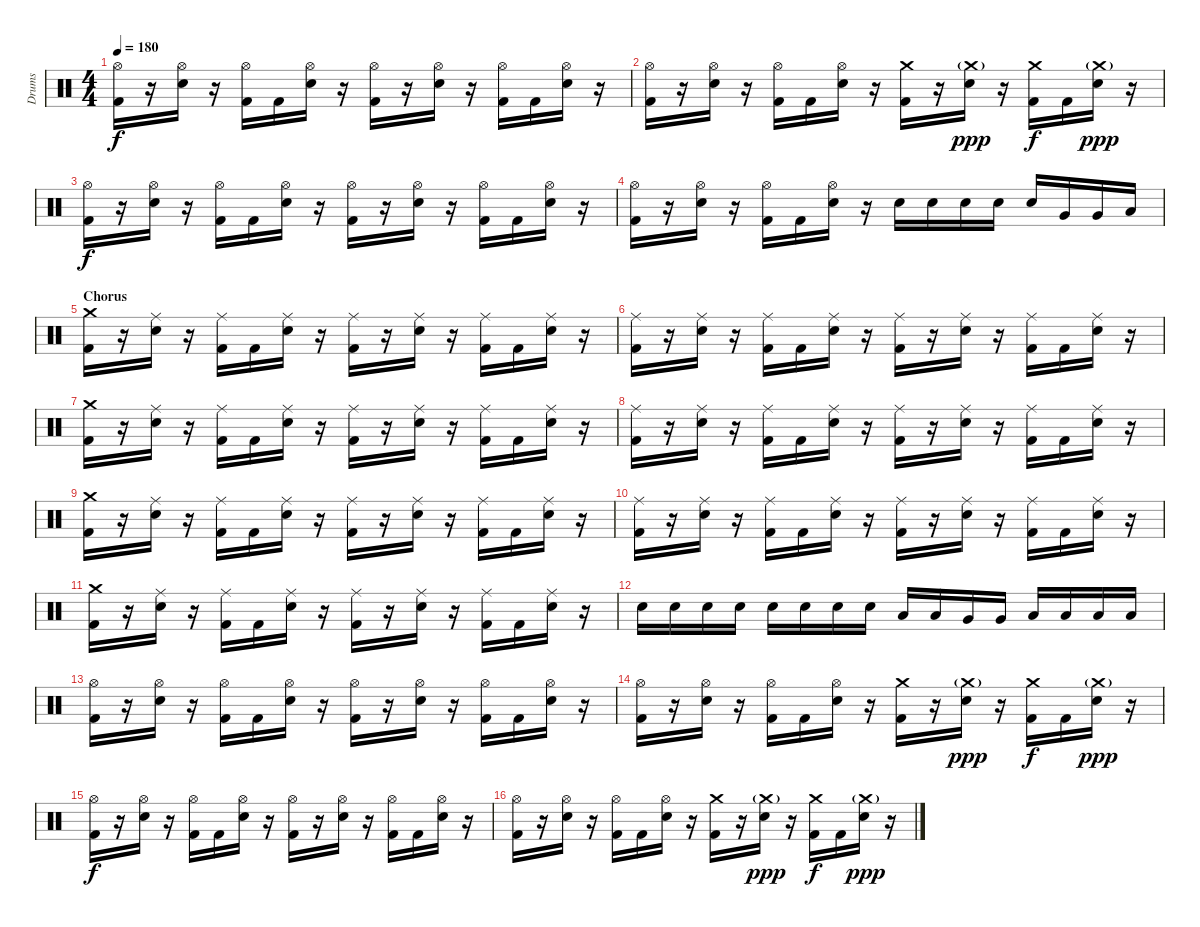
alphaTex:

\track ("Drums" "Drums") {instrument percussion}
\staff {score}
\articulation defaults
\ts (4 4)
\tempo 180
\clef neutral
\ks c
("Hi-Hat (open)" "Kick (hit) 2").16{dy f} r.16 ("Hi-Hat (open)" "Snare (hit) 2").16 r.16 ("Hi-Hat (open)" "Kick (hit) 2").16 "Kick (hit) 2".16 ("Hi-Hat (open)" "Snare (hit) 2").16 r.16 ("Hi-Hat (open)" "Kick (hit) 2").16 r.16 ("Hi-Hat (open)" "Snare (hit) 2").16 r.16 ("Hi-Hat (open)" "Kick (hit) 2").16 "Kick (hit) 2".16 ("Hi-Hat (open)" "Snare (hit) 2").16 r.16 |
("Hi-Hat (open)" "Kick (hit) 2").16 r.16 ("Hi-Hat (open)" "Snare (hit) 2").16 r.16 ("Hi-Hat (open)" "Kick (hit) 2").16 "Kick (hit) 2".16 ("Hi-Hat (open)" "Snare (hit) 2").16 r.16 ("Crash medium (hit)" "Kick (hit) 2").16 r.16 ("Crash medium (hit)"{g} "Snare (hit) 2").16{dy ppp} r.16 ("Crash medium (hit)" "Kick (hit) 2").16{dy f} "Kick (hit) 2".16 ("Crash medium (hit)"{g} "Snare (hit) 2").16{dy ppp} r.16 |
("Hi-Hat (open)" "Kick (hit) 2").16{dy f} r.16 ("Hi-Hat (open)" "Snare (hit) 2").16 r.16 ("Hi-Hat (open)" "Kick (hit) 2").16 "Kick (hit) 2".16 ("Hi-Hat (open)" "Snare (hit) 2").16 r.16 ("Hi-Hat (open)" "Kick (hit) 2").16 r.16 ("Hi-Hat (open)" "Snare (hit) 2").16 r.16 ("Hi-Hat (open)" "Kick (hit) 2").16 "Kick (hit) 2".16 ("Hi-Hat (open)" "Snare (hit) 2").16 r.16 |
("Hi-Hat (open)" "Kick (hit) 2").16 r.16 ("Hi-Hat (open)" "Snare (hit) 2").16 r.16 ("Hi-Hat (open)" "Kick (hit) 2").16 "Kick (hit) 2".16 ("Hi-Hat (open)" "Snare (hit) 2").16 r.16 "Snare (hit) 2".16 "Snare (hit) 2".16 "Snare (hit) 2".16 "Snare (hit) 2".16 "Snare (hit) 2".16 "Very Low Tom (hit)".16 "Very Low Tom (hit)".16 "Low Floor Tom (hit)".16 |
\section ("" "Chorus")
("Crash medium (hit)" "Kick (hit) 2").16 r.16 ("Ride (middle)" "Snare (hit) 2").16 r.16 ("Ride (middle)" "Kick (hit) 2").16 "Kick (hit) 2".16 ("Ride (middle)" "Snare (hit) 2").16 r.16 ("Ride (middle)" "Kick (hit) 2").16 r.16 ("Ride (middle)" "Snare (hit) 2").16 r.16 ("Ride (middle)" "Kick (hit) 2").16 "Kick (hit) 2".16 ("Ride (middle)" "Snare (hit) 2").16 r.16 |
("Ride (middle)" "Kick (hit) 2").16 r.16 ("Ride (middle)" "Snare (hit) 2").16 r.16 ("Ride (middle)" "Kick (hit) 2").16 "Kick (hit) 2".16 ("Ride (middle)" "Snare (hit) 2").16 r.16 ("Ride (middle)" "Kick (hit) 2").16 r.16 ("Ride (middle)" "Snare (hit) 2").16 r.16 ("Ride (middle)" "Kick (hit) 2").16 "Kick (hit) 2".16 ("Ride (middle)" "Snare (hit) 2").16 r.16 |
("Crash medium (hit)" "Kick (hit) 2").16 r.16 ("Ride (middle)" "Snare (hit) 2").16 r.16 ("Ride (middle)" "Kick (hit) 2").16 "Kick (hit) 2".16 ("Ride (middle)" "Snare (hit) 2").16 r.16 ("Ride (middle)" "Kick (hit) 2").16 r.16 ("Ride (middle)" "Snare (hit) 2").16 r.16 ("Ride (middle)" "Kick (hit) 2").16 "Kick (hit) 2".16 ("Ride (middle)" "Snare (hit) 2").16 r.16 |
("Ride (middle)" "Kick (hit) 2").16 r.16 ("Ride (middle)" "Snare (hit) 2").16 r.16 ("Ride (middle)" "Kick (hit) 2").16 "Kick (hit) 2".16 ("Ride (middle)" "Snare (hit) 2").16 r.16 ("Ride (middle)" "Kick (hit) 2").16 r.16 ("Ride (middle)" "Snare (hit) 2").16 r.16 ("Ride (middle)" "Kick (hit) 2").16 "Kick (hit) 2".16 ("Ride (middle)" "Snare (hit) 2").16 r.16 |
("Crash medium (hit)" "Kick (hit) 2").16 r.16 ("Ride (middle)" "Snare (hit) 2").16 r.16 ("Ride (middle)" "Kick (hit) 2").16 "Kick (hit) 2".16 ("Ride (middle)" "Snare (hit) 2").16 r.16 ("Ride (middle)" "Kick (hit) 2").16 r.16 ("Ride (middle)" "Snare (hit) 2").16 r.16 ("Ride (middle)" "Kick (hit) 2").16 "Kick (hit) 2".16 ("Ride (middle)" "Snare (hit) 2").16 r.16 |
("Ride (middle)" "Kick (hit) 2").16 r.16 ("Ride (middle)" "Snare (hit) 2").16 r.16 ("Ride (middle)" "Kick (hit) 2").16 "Kick (hit) 2".16 ("Ride (middle)" "Snare (hit) 2").16 r.16 ("Ride (middle)" "Kick (hit) 2").16 r.16 ("Ride (middle)" "Snare (hit) 2").16 r.16 ("Ride (middle)" "Kick (hit) 2").16 "Kick (hit) 2".16 ("Ride (middle)" "Snare (hit) 2").16 r.16 |
("Crash medium (hit)" "Kick (hit) 2").16 r.16 ("Ride (middle)" "Snare (hit) 2").16 r.16 ("Ride (middle)" "Kick (hit) 2").16 "Kick (hit) 2".16 ("Ride (middle)" "Snare (hit) 2").16 r.16 ("Ride (middle)" "Kick (hit) 2").16 r.16 ("Ride (middle)" "Snare (hit) 2").16 r.16 ("Ride (middle)" "Kick (hit) 2").16 "Kick (hit) 2".16 ("Ride (middle)" "Snare (hit) 2").16 r.16 |
"Snare (hit) 2".16 "Snare (hit) 2".16 "Snare (hit) 2".16 "Snare (hit) 2".16 "Snare (hit) 2".16 "Snare (hit) 2".16 "Snare (hit) 2".16 "Snare (hit) 2".16 "Low Tom (hit)".16 "Low Tom (hit)".16 "Very Low Tom (hit)".16 "Very Low Tom (hit)".16 "Low Floor Tom (hit)".16 "Low Floor Tom (hit)".16 "Low Floor Tom (hit)".16 "Low Floor Tom (hit)".16 |
\section ("" "")
("Hi-Hat (open)" "Kick (hit) 2").16 r.16 ("Hi-Hat (open)" "Snare (hit) 2").16 r.16 ("Hi-Hat (open)" "Kick (hit) 2").16 "Kick (hit) 2".16 ("Hi-Hat (open)" "Snare (hit) 2").16 r.16 ("Hi-Hat (open)" "Kick (hit) 2").16 r.16 ("Hi-Hat (open)" "Snare (hit) 2").16 r.16 ("Hi-Hat (open)" "Kick (hit) 2").16 "Kick (hit) 2".16 ("Hi-Hat (open)" "Snare (hit) 2").16 r.16 |
("Hi-Hat (open)" "Kick (hit) 2").16 r.16 ("Hi-Hat (open)" "Snare (hit) 2").16 r.16 ("Hi-Hat (open)" "Kick (hit) 2").16 "Kick (hit) 2".16 ("Hi-Hat (open)" "Snare (hit) 2").16 r.16 ("Crash medium (hit)" "Kick (hit) 2").16 r.16 ("Crash medium (hit)"{g} "Snare (hit) 2").16{dy ppp} r.16 ("Crash medium (hit)" "Kick (hit) 2").16{dy f} "Kick (hit) 2".16 ("Crash medium (hit)"{g} "Snare (hit) 2").16{dy ppp} r.16 |
("Hi-Hat (open)" "Kick (hit) 2").16{dy f} r.16 ("Hi-Hat (open)" "Snare (hit) 2").16 r.16 ("Hi-Hat (open)" "Kick (hit) 2").16 "Kick (hit) 2".16 ("Hi-Hat (open)" "Snare (hit) 2").16 r.16 ("Hi-Hat (open)" "Kick (hit) 2").16 r.16 ("Hi-Hat (open)" "Snare (hit) 2").16 r.16 ("Hi-Hat (open)" "Kick (hit) 2").16 "Kick (hit) 2".16 ("Hi-Hat (open)" "Snare (hit) 2").16 r.16 |
("Hi-Hat (open)" "Kick (hit) 2").16 r.16 ("Hi-Hat (open)" "Snare (hit) 2").16 r.16 ("Hi-Hat (open)" "Kick (hit) 2").16 "Kick (hit) 2".16 ("Hi-Hat (open)" "Snare (hit) 2").16 r.16 ("Crash medium (hit)" "Kick (hit) 2").16 r.16 ("Crash medium (hit)"{g} "Snare (hit) 2").16{dy ppp} r.16 ("Crash medium (hit)" "Kick (hit) 2").16{dy f} "Kick (hit) 2".16 ("Crash medium (hit)"{g} "Snare (hit) 2").16{dy ppp} r.16
